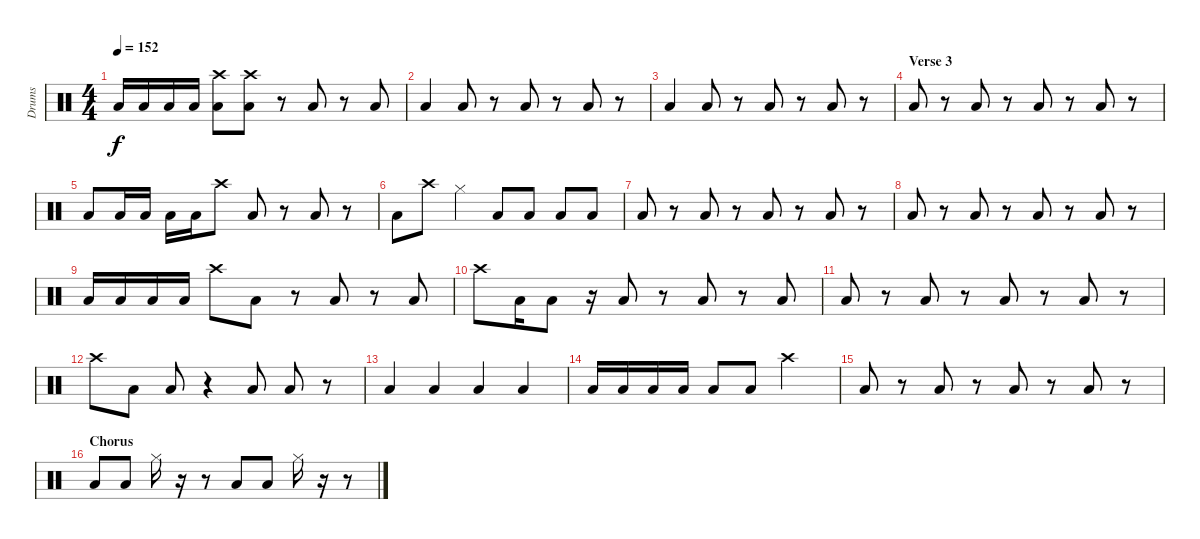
\track ("Drums" "Drums") {instrument percussion}
\staff {score}
\articulation defaults
\ts (4 4)
\tempo 152
\clef neutral
\ks c "Low Tom (hit)".16{dy f} "Low Tom (hit)".16 "Low Tom (hit)".16 "Low Tom (hit)".16
("Crash high (hit)" "Low Tom (hit)").8 ("Crash high (hit)" "Low Tom (hit)").8 r.8 "Low Tom (hit)".8 r.8 "Low Tom (hit)".8 |
"Low Tom (hit)".4 "Low Tom (hit)".8 r.8 "Low Tom (hit)".8 r.8 "Low Tom (hit)".8 r.8 |
"Low Tom (hit)".4 "Low Tom (hit)".8 r.8 "Low Tom (hit)".8 r.8 "Low Tom (hit)".8 r.8 |
\section ("" "Verse 3")
"Low Tom (hit)".8 r.8 "Low Tom (hit)".8 r.8 "Low Tom (hit)".8 r.8 "Low Tom (hit)".8 r.8 |
"Low Tom (hit)".8 "Low Tom (hit)".16 "Low Tom (hit)".16 "Low Tom (hit)".16 "Low Tom (hit)".16 "Crash high (hit)".8 "Low Tom (hit)".8 r.8 "Low Tom (hit)".8 r.8 |
"Low Tom (hit)".8 "Crash high (hit)".8 "Hi-Hat (closed)".4 "Low Tom (hit)".8 "Low Tom (hit)".8 "Low Tom (hit)".8 "Low Tom (hit)".8 |
"Low Tom (hit)".8 r.8 "Low Tom (hit)".8 r.8 "Low Tom (hit)".8 r.8 "Low Tom (hit)".8 r.8 |
"Low Tom (hit)".8 r.8 "Low Tom (hit)".8 r.8 "Low Tom (hit)".8 r.8 "Low Tom (hit)".8 r.8 |
"Low Tom (hit)".16 "Low Tom (hit)".16 "Low Tom (hit)".16 "Low Tom (hit)".16 "Crash high (hit)".8 "Low Tom (hit)".8 r.8 "Low Tom (hit)".8 r.8 "Low Tom (hit)".8 |
"Crash high (hit)".8 "Low Tom (hit)".16 "Low Tom (hit)".8 r.16 "Low Tom (hit)".8 r.8 "Low Tom (hit)".8 r.8 "Low Tom (hit)".8 |
"Low Tom (hit)".8 r.8 "Low Tom (hit)".8 r.8 "Low Tom (hit)".8 r.8 "Low Tom (hit)".8 r.8 |
"Crash high (hit)".8 "Low Tom (hit)".8 "Low Tom (hit)".8 r.4 "Low Tom (hit)".8 "Low Tom (hit)".8 r.8 |
"Low Tom (hit)".4 "Low Tom (hit)".4 "Low Tom (hit)".4 "Low Tom (hit)".4 |
"Low Tom (hit)".16 "Low Tom (hit)".16 "Low Tom (hit)".16 "Low Tom (hit)".16 "Low Tom (hit)".8 "Low Tom (hit)".8 "Crash high (hit)".2 |
"Low Tom (hit)".8 r.8 "Low Tom (hit)".8 r.8 "Low Tom (hit)".8 r.8 "Low Tom (hit)".8 r.8 |
\section ("" "Chorus")
"Low Tom (hit)".8 "Low Tom (hit)".8 "Hi-Hat (closed)".16 r.16 r.8 "Low Tom (hit)".8 "Low Tom (hit)".8 "Hi-Hat (closed)".16 r.16 r.8
